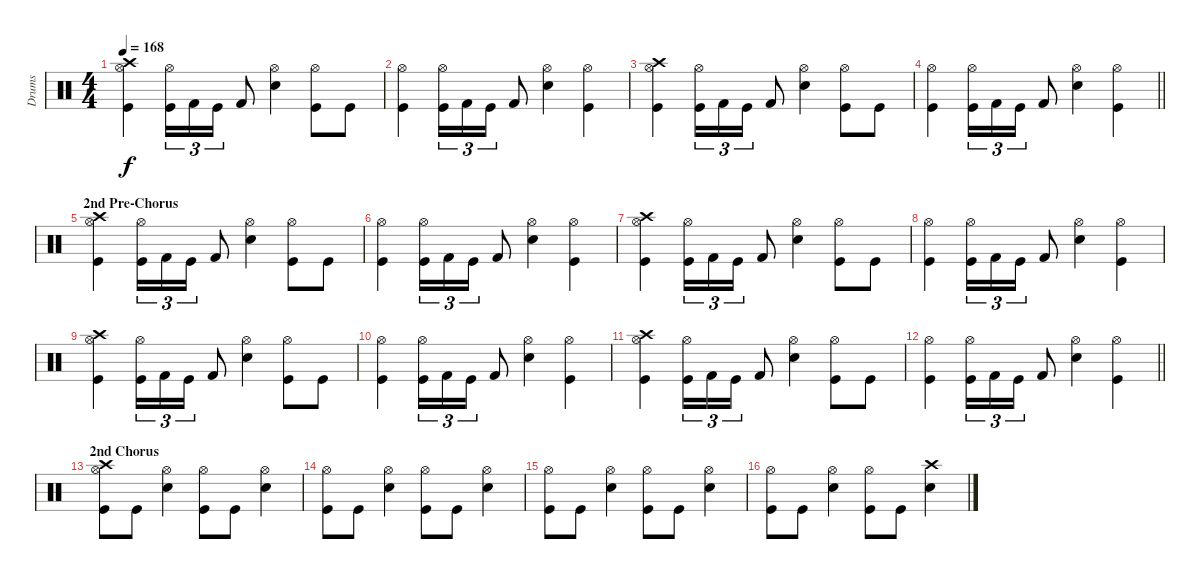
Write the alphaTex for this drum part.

\track ("Drums" "Drums") {instrument percussion}
\staff {score}
\articulation defaults
\ts (4 4)
\tempo 168
\clef neutral
\ks c
("Crash high (hit)" "Hi-Hat (open)" "Kick (hit)").4{dy f} ("Hi-Hat (open)" "Kick (hit)").16{tu (3 2)} "Kick (hit) 2".16{tu (3 2)} "Kick (hit)".16{tu (3 2)} "Kick (hit) 2".8 ("Hi-Hat (open)" "Snare (hit) 2").4 ("Hi-Hat (open)" "Kick (hit)").8 "Kick (hit)".8 |
("Hi-Hat (open)" "Kick (hit)").4 ("Hi-Hat (open)" "Kick (hit)").16{tu (3 2)} "Kick (hit) 2".16{tu (3 2)} "Kick (hit)".16{tu (3 2)} "Kick (hit) 2".8 ("Hi-Hat (open)" "Snare (hit) 2").4 ("Hi-Hat (open)" "Kick (hit)").4 |
("Crash high (hit)" "Hi-Hat (open)" "Kick (hit)").4 ("Hi-Hat (open)" "Kick (hit)").16{tu (3 2)} "Kick (hit) 2".16{tu (3 2)} "Kick (hit)".16{tu (3 2)} "Kick (hit) 2".8 ("Hi-Hat (open)" "Snare (hit) 2").4 ("Hi-Hat (open)" "Kick (hit)").8 "Kick (hit)".8 |
\barLineRight lightlight
("Hi-Hat (open)" "Kick (hit)").4 ("Hi-Hat (open)" "Kick (hit)").16{tu (3 2)} "Kick (hit) 2".16{tu (3 2)} "Kick (hit)".16{tu (3 2)} "Kick (hit) 2".8 ("Hi-Hat (open)" "Snare (hit) 2").4 ("Hi-Hat (open)" "Kick (hit)").4 |
\section ("" "2nd Pre-Chorus")
("Crash high (hit)" "Hi-Hat (open)" "Kick (hit)").4 ("Hi-Hat (open)" "Kick (hit)").16{tu (3 2)} "Kick (hit) 2".16{tu (3 2)} "Kick (hit)".16{tu (3 2)} "Kick (hit) 2".8 ("Hi-Hat (open)" "Snare (hit) 2").4 ("Hi-Hat (open)" "Kick (hit)").8 "Kick (hit)".8 |
("Hi-Hat (open)" "Kick (hit)").4 ("Hi-Hat (open)" "Kick (hit)").16{tu (3 2)} "Kick (hit) 2".16{tu (3 2)} "Kick (hit)".16{tu (3 2)} "Kick (hit) 2".8 ("Hi-Hat (open)" "Snare (hit) 2").4 ("Hi-Hat (open)" "Kick (hit)").4 |
("Crash high (hit)" "Hi-Hat (open)" "Kick (hit)").4 ("Hi-Hat (open)" "Kick (hit)").16{tu (3 2)} "Kick (hit) 2".16{tu (3 2)} "Kick (hit)".16{tu (3 2)} "Kick (hit) 2".8 ("Hi-Hat (open)" "Snare (hit) 2").4 ("Hi-Hat (open)" "Kick (hit)").8 "Kick (hit)".8 |
("Hi-Hat (open)" "Kick (hit)").4 ("Hi-Hat (open)" "Kick (hit)").16{tu (3 2)} "Kick (hit) 2".16{tu (3 2)} "Kick (hit)".16{tu (3 2)} "Kick (hit) 2".8 ("Hi-Hat (open)" "Snare (hit) 2").4 ("Hi-Hat (open)" "Kick (hit)").4 |
("Crash high (hit)" "Hi-Hat (open)" "Kick (hit)").4 ("Hi-Hat (open)" "Kick (hit)").16{tu (3 2)} "Kick (hit) 2".16{tu (3 2)} "Kick (hit)".16{tu (3 2)} "Kick (hit) 2".8 ("Hi-Hat (open)" "Snare (hit) 2").4 ("Hi-Hat (open)" "Kick (hit)").8 "Kick (hit)".8 |
("Hi-Hat (open)" "Kick (hit)").4 ("Hi-Hat (open)" "Kick (hit)").16{tu (3 2)} "Kick (hit) 2".16{tu (3 2)} "Kick (hit)".16{tu (3 2)} "Kick (hit) 2".8 ("Hi-Hat (open)" "Snare (hit) 2").4 ("Hi-Hat (open)" "Kick (hit)").4 |
("Crash high (hit)" "Hi-Hat (open)" "Kick (hit)").4 ("Hi-Hat (open)" "Kick (hit)").16{tu (3 2)} "Kick (hit) 2".16{tu (3 2)} "Kick (hit)".16{tu (3 2)} "Kick (hit) 2".8 ("Hi-Hat (open)" "Snare (hit) 2").4 ("Hi-Hat (open)" "Kick (hit)").8 "Kick (hit)".8 |
\barLineRight lightlight
("Hi-Hat (open)" "Kick (hit)").4 ("Hi-Hat (open)" "Kick (hit)").16{tu (3 2)} "Kick (hit) 2".16{tu (3 2)} "Kick (hit)".16{tu (3 2)} "Kick (hit) 2".8 ("Hi-Hat (open)" "Snare (hit) 2").4 ("Hi-Hat (open)" "Kick (hit)").4 |
\section ("" "2nd Chorus")
("Crash high (hit)" "Hi-Hat (open)" "Kick (hit)").8 "Kick (hit)".8 ("Hi-Hat (open)" "Snare (hit) 2").4 ("Hi-Hat (open)" "Kick (hit)").8 "Kick (hit)".8 ("Hi-Hat (open)" "Snare (hit) 2").4 |
("Hi-Hat (open)" "Kick (hit)").8 "Kick (hit)".8 ("Hi-Hat (open)" "Snare (hit) 2").4 ("Hi-Hat (open)" "Kick (hit)").8 "Kick (hit)".8 ("Hi-Hat (open)" "Snare (hit) 2").4 |
("Hi-Hat (open)" "Kick (hit)").8 "Kick (hit)".8 ("Hi-Hat (open)" "Snare (hit) 2").4 ("Hi-Hat (open)" "Kick (hit)").8 "Kick (hit)".8 ("Hi-Hat (open)" "Snare (hit) 2").4 |
("Hi-Hat (open)" "Kick (hit)").8 "Kick (hit)".8 ("Hi-Hat (open)" "Snare (hit) 2").4 ("Hi-Hat (open)" "Kick (hit)").8 "Kick (hit)".8 ("Crash high (hit)" "Snare (hit) 2").4
